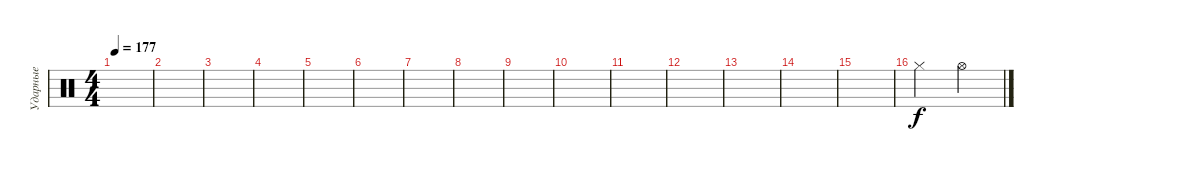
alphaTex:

\track ("Ударные" "Ударные") {instrument percussion}
\staff {score}
\articulation defaults
\ts (4 4)
\tempo 177
\clef neutral
\ks c
|
|
|
|
|
|
|
|
|
|
|
|
|
|
|
"Hi-Hat (closed)".2 "Hi-Hat (open)".2
